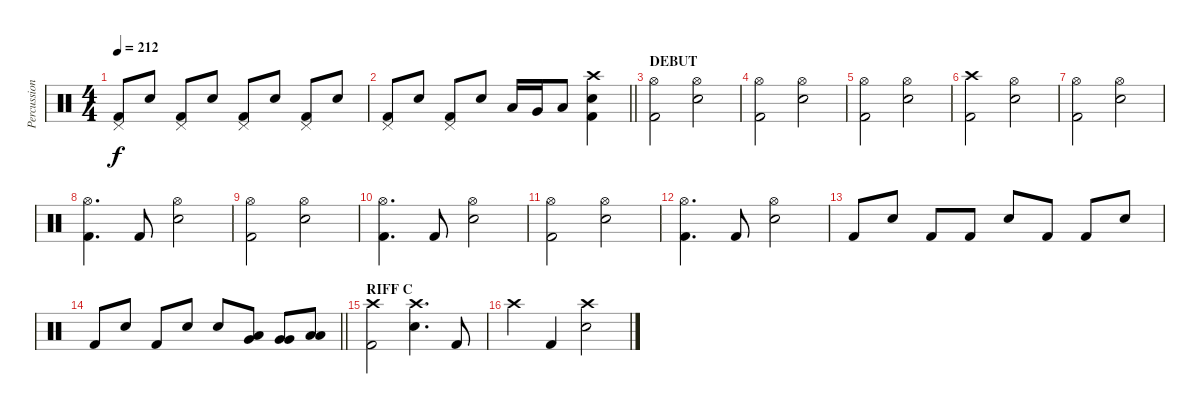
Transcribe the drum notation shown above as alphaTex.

\track ("Percussions" "Percussion") {instrument percussion}
\staff {score}
\articulation defaults
\ts (4 4)
\tempo 212
\clef neutral
\ks c
("Pedal Hi-Hat (hit)" "Kick (hit) 2").8{dy f} "Snare (hit) 2".8 ("Pedal Hi-Hat (hit)" "Kick (hit) 2").8 "Snare (hit) 2".8 ("Pedal Hi-Hat (hit)" "Kick (hit) 2").8 "Snare (hit) 2".8 ("Pedal Hi-Hat (hit)" "Kick (hit) 2").8 "Snare (hit) 2".8 |
\barLineRight lightlight
("Pedal Hi-Hat (hit)" "Kick (hit) 2").8 "Snare (hit) 2".8 ("Pedal Hi-Hat (hit)" "Kick (hit) 2").8 "Snare (hit) 2".8 "Low Tom (hit)".16 "Very Low Tom (hit)".16 "Low Floor Tom (hit)".8 ("Crash high (hit)" "Snare (hit) 2" "Kick (hit) 2").4 |
\section ("" "DEBUT")
("Hi-Hat (open)" "Kick (hit) 2").2 ("Hi-Hat (open)" "Snare (hit) 2").2 |
("Hi-Hat (open)" "Kick (hit) 2").2 ("Hi-Hat (open)" "Snare (hit) 2").2 |
("Hi-Hat (open)" "Kick (hit) 2").2 ("Hi-Hat (open)" "Snare (hit) 2").2 |
("Crash high (hit)" "Kick (hit) 2").2 ("Hi-Hat (open)" "Snare (hit) 2").2 |
("Hi-Hat (open)" "Kick (hit) 2").2 ("Hi-Hat (open)" "Snare (hit) 2").2 |
("Hi-Hat (open)" "Kick (hit) 2").4{d} "Kick (hit) 2".8 ("Hi-Hat (open)" "Snare (hit) 2").2 |
("Hi-Hat (open)" "Kick (hit) 2").2 ("Hi-Hat (open)" "Snare (hit) 2").2 |
("Hi-Hat (open)" "Kick (hit) 2").4{d} "Kick (hit) 2".8 ("Hi-Hat (open)" "Snare (hit) 2").2 |
("Hi-Hat (open)" "Kick (hit) 2").2 ("Hi-Hat (open)" "Snare (hit) 2").2 |
("Hi-Hat (open)" "Kick (hit) 2").4{d} "Kick (hit) 2".8 ("Hi-Hat (open)" "Snare (hit) 2").2 |
"Kick (hit) 2".8 "Snare (hit) 2".8 "Kick (hit) 2".8 "Kick (hit) 2".8 "Snare (hit) 2".8 "Kick (hit) 2".8 "Kick (hit) 2".8 "Snare (hit) 2".8 |
\barLineRight lightlight "Kick (hit) 2".8 "Snare (hit) 2".8 "Kick (hit) 2".8 "Snare (hit) 2".8 "Snare (hit) 2".8
("Low Tom (hit)" "Very Low Tom (hit)").8 ("Very Low Tom (hit)" "Very Low Tom (hit)").8 ("Low Floor Tom (hit)" "Low Floor Tom (hit)").8 |
\section ("" "RIFF C")
("Crash high (hit)" "Kick (hit) 2").2 ("Crash high (hit)" "Snare (hit) 2").4{d} "Kick (hit) 2".8 |
"Crash high (hit)".4 "Kick (hit) 2".4 ("Crash high (hit)" "Snare (hit) 2").2
